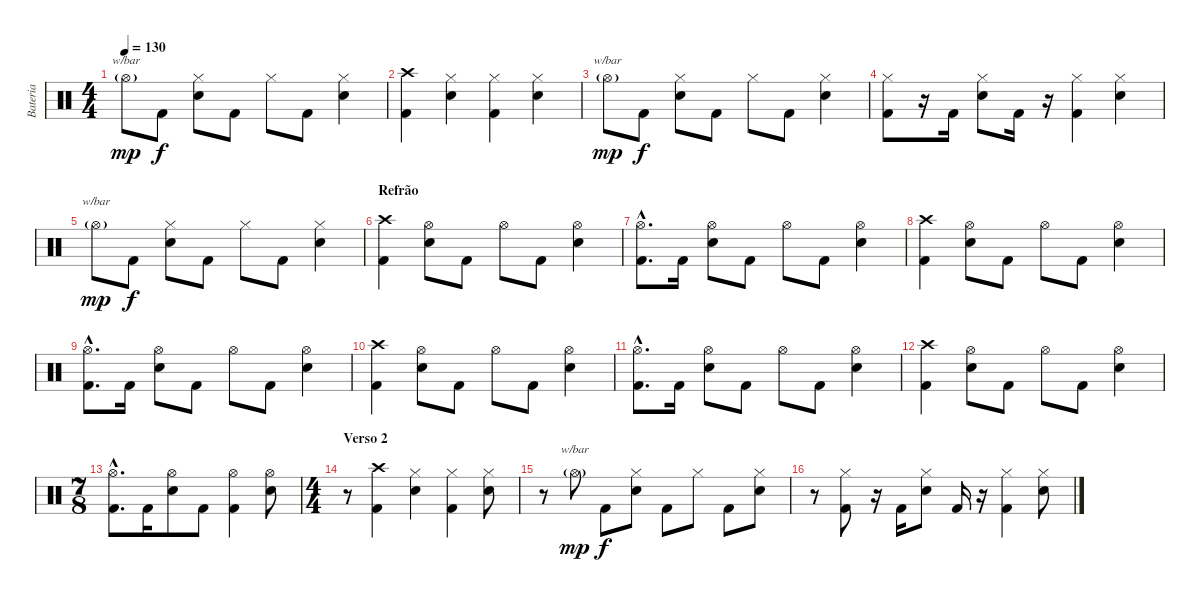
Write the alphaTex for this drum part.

\track ("Bateria" "Bateria") {instrument percussion}
\staff {score}
\articulation defaults
\ts (4 4)
\tempo 130
\clef neutral
\ks c "Hi-Hat (open)"{g}.8{tbe (custom default 0 0 45 2 60 2) dy mp} "Kick (hit) 2".8{dy f}
("Hi-Hat (closed)" "Electric Snare (hit)").8 "Kick (hit) 2".8 "Hi-Hat (closed)".8 "Kick (hit) 2".8 ("Hi-Hat (closed)" "Electric Snare (hit)").4 |
("Crash high (hit)" "Kick (hit) 2").4 ("Hi-Hat (closed)" "Electric Snare (hit)").4 ("Hi-Hat (closed)" "Kick (hit) 2").4 ("Hi-Hat (closed)" "Electric Snare (hit)").4 |
"Hi-Hat (open)"{g}.8{tbe (custom default 0 0 45 2 60 2) dy mp} "Kick (hit) 2".8{dy f} ("Hi-Hat (closed)" "Electric Snare (hit)").8 "Kick (hit) 2".8 "Hi-Hat (closed)".8 "Kick (hit) 2".8 ("Hi-Hat (closed)" "Electric Snare (hit)").4 |
("Hi-Hat (closed)" "Kick (hit) 2").8 r.16 "Kick (hit) 2".16 ("Hi-Hat (closed)" "Electric Snare (hit)").8 "Kick (hit) 2".16 r.16 ("Hi-Hat (closed)" "Kick (hit) 2").4 ("Hi-Hat (closed)" "Electric Snare (hit)").4 |
"Hi-Hat (open)"{g}.8{tbe (custom default 0 0 45 2 60 2) dy mp} "Kick (hit) 2".8{dy f} ("Hi-Hat (closed)" "Electric Snare (hit)").8 "Kick (hit) 2".8 "Hi-Hat (closed)".8 "Kick (hit) 2".8 ("Hi-Hat (closed)" "Electric Snare (hit)").4 |
\section ("" "Refrão")
("Crash high (hit)" "Kick (hit) 2").4 ("Hi-Hat (open)" "Electric Snare (hit)").8 "Kick (hit) 2".8 "Hi-Hat (open)".8 "Kick (hit) 2".8 ("Hi-Hat (open)" "Electric Snare (hit)").4 |
("Hi-Hat (open)"{hac} "Kick (hit) 2"{hac}).8{d} "Kick (hit) 2".16 ("Hi-Hat (open)" "Electric Snare (hit)").8 "Kick (hit) 2".8 "Hi-Hat (open)".8 "Kick (hit) 2".8 ("Hi-Hat (open)" "Electric Snare (hit)").4 |
("Crash high (hit)" "Kick (hit) 2").4 ("Hi-Hat (open)" "Electric Snare (hit)").8 "Kick (hit) 2".8 "Hi-Hat (open)".8 "Kick (hit) 2".8 ("Hi-Hat (open)" "Electric Snare (hit)").4 |
("Hi-Hat (open)"{hac} "Kick (hit) 2"{hac}).8{d} "Kick (hit) 2".16 ("Hi-Hat (open)" "Electric Snare (hit)").8 "Kick (hit) 2".8 "Hi-Hat (open)".8 "Kick (hit) 2".8 ("Hi-Hat (open)" "Electric Snare (hit)").4 |
("Crash high (hit)" "Kick (hit) 2").4 ("Hi-Hat (open)" "Electric Snare (hit)").8 "Kick (hit) 2".8 "Hi-Hat (open)".8 "Kick (hit) 2".8 ("Hi-Hat (open)" "Electric Snare (hit)").4 |
("Hi-Hat (open)"{hac} "Kick (hit) 2"{hac}).8{d} "Kick (hit) 2".16 ("Hi-Hat (open)" "Electric Snare (hit)").8 "Kick (hit) 2".8 "Hi-Hat (open)".8 "Kick (hit) 2".8 ("Hi-Hat (open)" "Electric Snare (hit)").4 |
("Crash high (hit)" "Kick (hit) 2").4 ("Hi-Hat (open)" "Electric Snare (hit)").8 "Kick (hit) 2".8 "Hi-Hat (open)".8 "Kick (hit) 2".8 ("Hi-Hat (open)" "Electric Snare (hit)").4 |
\ts (7 8)
("Hi-Hat (open)"{hac} "Kick (hit) 2"{hac}).8{d} "Kick (hit) 2".16 ("Hi-Hat (open)" "Electric Snare (hit)").8 "Kick (hit) 2".8 ("Hi-Hat (open)" "Kick (hit) 2").4 ("Hi-Hat (open)" "Electric Snare (hit)").8 |
\ts (4 4)
\section ("" "Verso 2")
r.8 ("Crash high (hit)" "Kick (hit) 2").4 ("Hi-Hat (closed)" "Electric Snare (hit)").4 ("Hi-Hat (closed)" "Kick (hit) 2").4 ("Hi-Hat (closed)" "Electric Snare (hit)").8 |
r.8 "Hi-Hat (open)"{g}.8{tbe (custom default 0 0 45 2 60 2) dy mp} "Kick (hit) 2".8{dy f} ("Hi-Hat (closed)" "Electric Snare (hit)").8 "Kick (hit) 2".8 "Hi-Hat (closed)".8 "Kick (hit) 2".8 ("Hi-Hat (closed)" "Electric Snare (hit)").8 |
r.8 ("Hi-Hat (closed)" "Kick (hit) 2").8 r.16 "Kick (hit) 2".16 ("Hi-Hat (closed)" "Electric Snare (hit)").8 "Kick (hit) 2".16 r.16 ("Hi-Hat (closed)" "Kick (hit) 2").4 ("Hi-Hat (closed)" "Electric Snare (hit)").8
